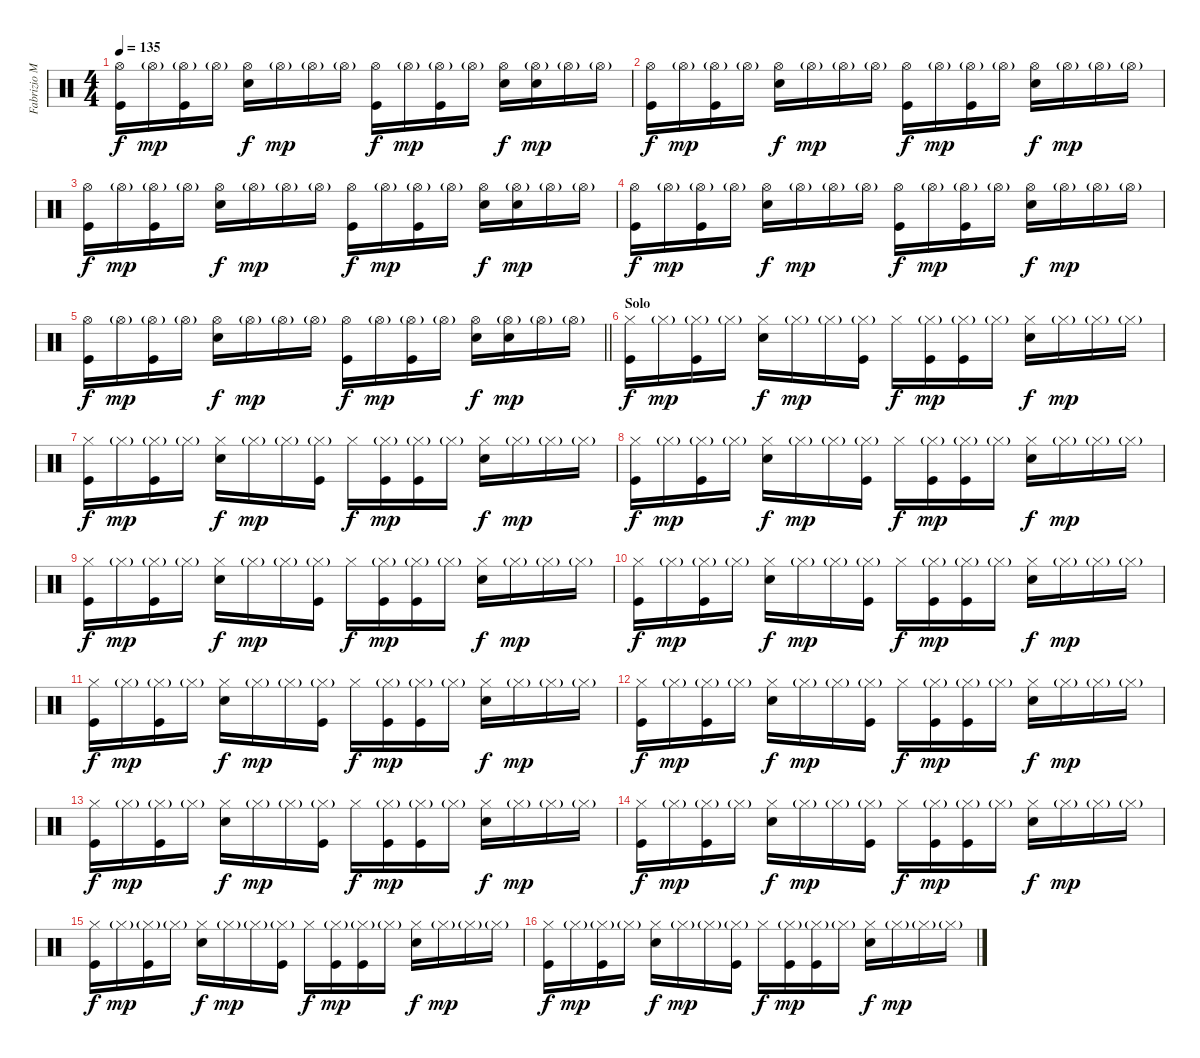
\track ("Fabrizio Moretti" "Fabrizio M") {instrument percussion}
\staff {score}
\articulation defaults
\ts (4 4)
\tempo 135
\clef neutral
\ks c
("Hi-Hat (open)" "Kick (hit)").16{dy f} "Hi-Hat (open)"{g}.16{dy mp} ("Hi-Hat (open)"{g} "Kick (hit)").16 "Hi-Hat (open)"{g}.16 ("Hi-Hat (open)" "Electric Snare (hit)").16{dy f} "Hi-Hat (open)"{g}.16{dy mp} "Hi-Hat (open)"{g}.16 "Hi-Hat (open)"{g}.16 ("Hi-Hat (open)" "Kick (hit)").16{dy f} "Hi-Hat (open)"{g}.16{dy mp} ("Hi-Hat (open)"{g} "Kick (hit)").16 "Hi-Hat (open)"{g}.16 ("Hi-Hat (open)" "Electric Snare (hit)").16{dy f} ("Hi-Hat (open)"{g} "Electric Snare (hit)").16{dy mp} "Hi-Hat (open)"{g}.16 "Hi-Hat (open)"{g}.16 |
("Hi-Hat (open)" "Kick (hit)").16{dy f} "Hi-Hat (open)"{g}.16{dy mp} ("Hi-Hat (open)"{g} "Kick (hit)").16 "Hi-Hat (open)"{g}.16 ("Hi-Hat (open)" "Electric Snare (hit)").16{dy f} "Hi-Hat (open)"{g}.16{dy mp} "Hi-Hat (open)"{g}.16 "Hi-Hat (open)"{g}.16 ("Hi-Hat (open)" "Kick (hit)").16{dy f} "Hi-Hat (open)"{g}.16{dy mp} ("Hi-Hat (open)"{g} "Kick (hit)").16 "Hi-Hat (open)"{g}.16 ("Hi-Hat (open)" "Electric Snare (hit)").16{dy f} "Hi-Hat (open)"{g}.16{dy mp} "Hi-Hat (open)"{g}.16 "Hi-Hat (open)"{g}.16 |
("Hi-Hat (open)" "Kick (hit)").16{dy f} "Hi-Hat (open)"{g}.16{dy mp} ("Hi-Hat (open)"{g} "Kick (hit)").16 "Hi-Hat (open)"{g}.16 ("Hi-Hat (open)" "Electric Snare (hit)").16{dy f} "Hi-Hat (open)"{g}.16{dy mp} "Hi-Hat (open)"{g}.16 "Hi-Hat (open)"{g}.16 ("Hi-Hat (open)" "Kick (hit)").16{dy f} "Hi-Hat (open)"{g}.16{dy mp} ("Hi-Hat (open)"{g} "Kick (hit)").16 "Hi-Hat (open)"{g}.16 ("Hi-Hat (open)" "Electric Snare (hit)").16{dy f} ("Hi-Hat (open)"{g} "Electric Snare (hit)").16{dy mp} "Hi-Hat (open)"{g}.16 "Hi-Hat (open)"{g}.16 |
("Hi-Hat (open)" "Kick (hit)").16{dy f} "Hi-Hat (open)"{g}.16{dy mp} ("Hi-Hat (open)"{g} "Kick (hit)").16 "Hi-Hat (open)"{g}.16 ("Hi-Hat (open)" "Electric Snare (hit)").16{dy f} "Hi-Hat (open)"{g}.16{dy mp} "Hi-Hat (open)"{g}.16 "Hi-Hat (open)"{g}.16 ("Hi-Hat (open)" "Kick (hit)").16{dy f} "Hi-Hat (open)"{g}.16{dy mp} ("Hi-Hat (open)"{g} "Kick (hit)").16 "Hi-Hat (open)"{g}.16 ("Hi-Hat (open)" "Electric Snare (hit)").16{dy f} "Hi-Hat (open)"{g}.16{dy mp} "Hi-Hat (open)"{g}.16 "Hi-Hat (open)"{g}.16 |
\barLineRight lightlight
("Hi-Hat (open)" "Kick (hit)").16{dy f} "Hi-Hat (open)"{g}.16{dy mp} ("Hi-Hat (open)"{g} "Kick (hit)").16 "Hi-Hat (open)"{g}.16 ("Hi-Hat (open)" "Electric Snare (hit)").16{dy f} "Hi-Hat (open)"{g}.16{dy mp} "Hi-Hat (open)"{g}.16 "Hi-Hat (open)"{g}.16 ("Hi-Hat (open)" "Kick (hit)").16{dy f} "Hi-Hat (open)"{g}.16{dy mp} ("Hi-Hat (open)"{g} "Kick (hit)").16 "Hi-Hat (open)"{g}.16 ("Hi-Hat (open)" "Electric Snare (hit)").16{dy f} ("Hi-Hat (open)"{g} "Electric Snare (hit)").16{dy mp} "Hi-Hat (open)"{g}.16 "Hi-Hat (open)"{g}.16 |
\section ("" "Solo")
("Hi-Hat (closed)" "Kick (hit)").16{dy f} "Hi-Hat (closed)"{g}.16{dy mp} ("Hi-Hat (closed)"{g} "Kick (hit)").16 "Hi-Hat (closed)"{g}.16 ("Hi-Hat (closed)" "Electric Snare (hit)").16{dy f} "Hi-Hat (closed)"{g}.16{dy mp} "Hi-Hat (closed)"{g}.16 ("Hi-Hat (closed)"{g} "Kick (hit)").16 "Hi-Hat (closed)".16{dy f} ("Hi-Hat (closed)"{g} "Kick (hit)").16{dy mp} ("Hi-Hat (closed)"{g} "Kick (hit)").16 "Hi-Hat (closed)"{g}.16 ("Hi-Hat (closed)" "Electric Snare (hit)").16{dy f} "Hi-Hat (closed)"{g}.16{dy mp} "Hi-Hat (closed)"{g}.16 "Hi-Hat (closed)"{g}.16 |
("Hi-Hat (closed)" "Kick (hit)").16{dy f} "Hi-Hat (closed)"{g}.16{dy mp} ("Hi-Hat (closed)"{g} "Kick (hit)").16 "Hi-Hat (closed)"{g}.16 ("Hi-Hat (closed)" "Electric Snare (hit)").16{dy f} "Hi-Hat (closed)"{g}.16{dy mp} "Hi-Hat (closed)"{g}.16 ("Hi-Hat (closed)"{g} "Kick (hit)").16 "Hi-Hat (closed)".16{dy f} ("Hi-Hat (closed)"{g} "Kick (hit)").16{dy mp} ("Hi-Hat (closed)"{g} "Kick (hit)").16 "Hi-Hat (closed)"{g}.16 ("Hi-Hat (closed)" "Electric Snare (hit)").16{dy f} "Hi-Hat (closed)"{g}.16{dy mp} "Hi-Hat (closed)"{g}.16 "Hi-Hat (closed)"{g}.16 |
("Hi-Hat (closed)" "Kick (hit)").16{dy f} "Hi-Hat (closed)"{g}.16{dy mp} ("Hi-Hat (closed)"{g} "Kick (hit)").16 "Hi-Hat (closed)"{g}.16 ("Hi-Hat (closed)" "Electric Snare (hit)").16{dy f} "Hi-Hat (closed)"{g}.16{dy mp} "Hi-Hat (closed)"{g}.16 ("Hi-Hat (closed)"{g} "Kick (hit)").16 "Hi-Hat (closed)".16{dy f} ("Hi-Hat (closed)"{g} "Kick (hit)").16{dy mp} ("Hi-Hat (closed)"{g} "Kick (hit)").16 "Hi-Hat (closed)"{g}.16 ("Hi-Hat (closed)" "Electric Snare (hit)").16{dy f} "Hi-Hat (closed)"{g}.16{dy mp} "Hi-Hat (closed)"{g}.16 "Hi-Hat (closed)"{g}.16 |
("Hi-Hat (closed)" "Kick (hit)").16{dy f} "Hi-Hat (closed)"{g}.16{dy mp} ("Hi-Hat (closed)"{g} "Kick (hit)").16 "Hi-Hat (closed)"{g}.16 ("Hi-Hat (closed)" "Electric Snare (hit)").16{dy f} "Hi-Hat (closed)"{g}.16{dy mp} "Hi-Hat (closed)"{g}.16 ("Hi-Hat (closed)"{g} "Kick (hit)").16 "Hi-Hat (closed)".16{dy f} ("Hi-Hat (closed)"{g} "Kick (hit)").16{dy mp} ("Hi-Hat (closed)"{g} "Kick (hit)").16 "Hi-Hat (closed)"{g}.16 ("Hi-Hat (closed)" "Electric Snare (hit)").16{dy f} "Hi-Hat (closed)"{g}.16{dy mp} "Hi-Hat (closed)"{g}.16 "Hi-Hat (closed)"{g}.16 |
("Hi-Hat (closed)" "Kick (hit)").16{dy f} "Hi-Hat (closed)"{g}.16{dy mp} ("Hi-Hat (closed)"{g} "Kick (hit)").16 "Hi-Hat (closed)"{g}.16 ("Hi-Hat (closed)" "Electric Snare (hit)").16{dy f} "Hi-Hat (closed)"{g}.16{dy mp} "Hi-Hat (closed)"{g}.16 ("Hi-Hat (closed)"{g} "Kick (hit)").16 "Hi-Hat (closed)".16{dy f} ("Hi-Hat (closed)"{g} "Kick (hit)").16{dy mp} ("Hi-Hat (closed)"{g} "Kick (hit)").16 "Hi-Hat (closed)"{g}.16 ("Hi-Hat (closed)" "Electric Snare (hit)").16{dy f} "Hi-Hat (closed)"{g}.16{dy mp} "Hi-Hat (closed)"{g}.16 "Hi-Hat (closed)"{g}.16 |
("Hi-Hat (closed)" "Kick (hit)").16{dy f} "Hi-Hat (closed)"{g}.16{dy mp} ("Hi-Hat (closed)"{g} "Kick (hit)").16 "Hi-Hat (closed)"{g}.16 ("Hi-Hat (closed)" "Electric Snare (hit)").16{dy f} "Hi-Hat (closed)"{g}.16{dy mp} "Hi-Hat (closed)"{g}.16 ("Hi-Hat (closed)"{g} "Kick (hit)").16 "Hi-Hat (closed)".16{dy f} ("Hi-Hat (closed)"{g} "Kick (hit)").16{dy mp} ("Hi-Hat (closed)"{g} "Kick (hit)").16 "Hi-Hat (closed)"{g}.16 ("Hi-Hat (closed)" "Electric Snare (hit)").16{dy f} "Hi-Hat (closed)"{g}.16{dy mp} "Hi-Hat (closed)"{g}.16 "Hi-Hat (closed)"{g}.16 |
("Hi-Hat (closed)" "Kick (hit)").16{dy f} "Hi-Hat (closed)"{g}.16{dy mp} ("Hi-Hat (closed)"{g} "Kick (hit)").16 "Hi-Hat (closed)"{g}.16 ("Hi-Hat (closed)" "Electric Snare (hit)").16{dy f} "Hi-Hat (closed)"{g}.16{dy mp} "Hi-Hat (closed)"{g}.16 ("Hi-Hat (closed)"{g} "Kick (hit)").16 "Hi-Hat (closed)".16{dy f} ("Hi-Hat (closed)"{g} "Kick (hit)").16{dy mp} ("Hi-Hat (closed)"{g} "Kick (hit)").16 "Hi-Hat (closed)"{g}.16 ("Hi-Hat (closed)" "Electric Snare (hit)").16{dy f} "Hi-Hat (closed)"{g}.16{dy mp} "Hi-Hat (closed)"{g}.16 "Hi-Hat (closed)"{g}.16 |
("Hi-Hat (closed)" "Kick (hit)").16{dy f} "Hi-Hat (closed)"{g}.16{dy mp} ("Hi-Hat (closed)"{g} "Kick (hit)").16 "Hi-Hat (closed)"{g}.16 ("Hi-Hat (closed)" "Electric Snare (hit)").16{dy f} "Hi-Hat (closed)"{g}.16{dy mp} "Hi-Hat (closed)"{g}.16 ("Hi-Hat (closed)"{g} "Kick (hit)").16 "Hi-Hat (closed)".16{dy f} ("Hi-Hat (closed)"{g} "Kick (hit)").16{dy mp} ("Hi-Hat (closed)"{g} "Kick (hit)").16 "Hi-Hat (closed)"{g}.16 ("Hi-Hat (closed)" "Electric Snare (hit)").16{dy f} "Hi-Hat (closed)"{g}.16{dy mp} "Hi-Hat (closed)"{g}.16 "Hi-Hat (closed)"{g}.16 |
("Hi-Hat (closed)" "Kick (hit)").16{dy f} "Hi-Hat (closed)"{g}.16{dy mp} ("Hi-Hat (closed)"{g} "Kick (hit)").16 "Hi-Hat (closed)"{g}.16 ("Hi-Hat (closed)" "Electric Snare (hit)").16{dy f} "Hi-Hat (closed)"{g}.16{dy mp} "Hi-Hat (closed)"{g}.16 ("Hi-Hat (closed)"{g} "Kick (hit)").16 "Hi-Hat (closed)".16{dy f} ("Hi-Hat (closed)"{g} "Kick (hit)").16{dy mp} ("Hi-Hat (closed)"{g} "Kick (hit)").16 "Hi-Hat (closed)"{g}.16 ("Hi-Hat (closed)" "Electric Snare (hit)").16{dy f} "Hi-Hat (closed)"{g}.16{dy mp} "Hi-Hat (closed)"{g}.16 "Hi-Hat (closed)"{g}.16 |
("Hi-Hat (closed)" "Kick (hit)").16{dy f} "Hi-Hat (closed)"{g}.16{dy mp} ("Hi-Hat (closed)"{g} "Kick (hit)").16 "Hi-Hat (closed)"{g}.16 ("Hi-Hat (closed)" "Electric Snare (hit)").16{dy f} "Hi-Hat (closed)"{g}.16{dy mp} "Hi-Hat (closed)"{g}.16 ("Hi-Hat (closed)"{g} "Kick (hit)").16 "Hi-Hat (closed)".16{dy f} ("Hi-Hat (closed)"{g} "Kick (hit)").16{dy mp} ("Hi-Hat (closed)"{g} "Kick (hit)").16 "Hi-Hat (closed)"{g}.16 ("Hi-Hat (closed)" "Electric Snare (hit)").16{dy f} "Hi-Hat (closed)"{g}.16{dy mp} "Hi-Hat (closed)"{g}.16 "Hi-Hat (closed)"{g}.16 |
("Hi-Hat (closed)" "Kick (hit)").16{dy f} "Hi-Hat (closed)"{g}.16{dy mp} ("Hi-Hat (closed)"{g} "Kick (hit)").16 "Hi-Hat (closed)"{g}.16 ("Hi-Hat (closed)" "Electric Snare (hit)").16{dy f} "Hi-Hat (closed)"{g}.16{dy mp} "Hi-Hat (closed)"{g}.16 ("Hi-Hat (closed)"{g} "Kick (hit)").16 "Hi-Hat (closed)".16{dy f} ("Hi-Hat (closed)"{g} "Kick (hit)").16{dy mp} ("Hi-Hat (closed)"{g} "Kick (hit)").16 "Hi-Hat (closed)"{g}.16 ("Hi-Hat (closed)" "Electric Snare (hit)").16{dy f} "Hi-Hat (closed)"{g}.16{dy mp} "Hi-Hat (closed)"{g}.16 "Hi-Hat (closed)"{g}.16
